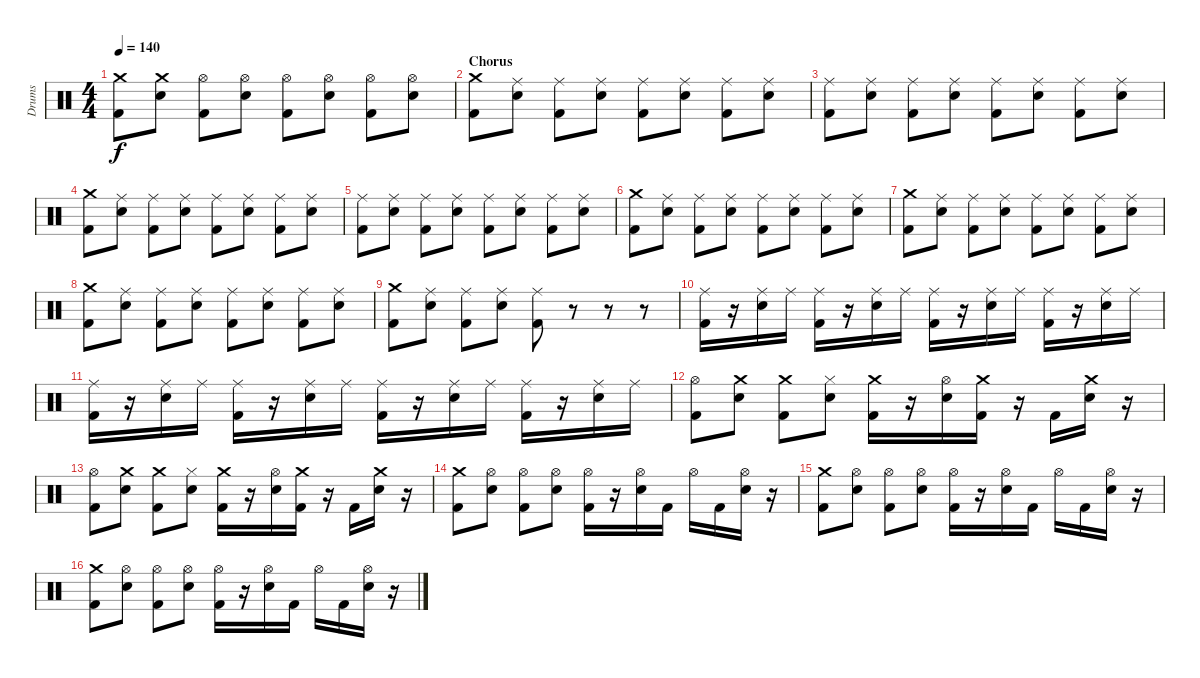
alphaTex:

\track ("Drums" "Drums") {instrument percussion}
\staff {score}
\articulation defaults
\ts (4 4)
\tempo 140
\clef neutral
\ks c
("Crash medium (hit)" "Kick (hit) 2").8{dy f} ("Crash medium (hit)" "Snare (hit) 2").8 ("Hi-Hat (open)" "Kick (hit) 2").8 ("Hi-Hat (open)" "Snare (hit) 2").8 ("Hi-Hat (open)" "Kick (hit) 2").8 ("Hi-Hat (open)" "Snare (hit) 2").8 ("Hi-Hat (open)" "Kick (hit) 2").8 ("Hi-Hat (open)" "Snare (hit) 2").8 |
\section ("" "Chorus")
("Crash medium (hit)" "Kick (hit) 2").8 ("Ride (middle)" "Snare (hit) 2").8 ("Ride (middle)" "Kick (hit) 2").8 ("Ride (middle)" "Snare (hit) 2").8 ("Ride (middle)" "Kick (hit) 2").8 ("Ride (middle)" "Snare (hit) 2").8 ("Ride (middle)" "Kick (hit) 2").8 ("Ride (middle)" "Snare (hit) 2").8 |
("Ride (middle)" "Kick (hit) 2").8 ("Ride (middle)" "Snare (hit) 2").8 ("Ride (middle)" "Kick (hit) 2").8 ("Ride (middle)" "Snare (hit) 2").8 ("Ride (middle)" "Kick (hit) 2").8 ("Ride (middle)" "Snare (hit) 2").8 ("Ride (middle)" "Kick (hit) 2").8 ("Ride (middle)" "Snare (hit) 2").8 |
("Crash medium (hit)" "Kick (hit) 2").8 ("Ride (middle)" "Snare (hit) 2").8 ("Ride (middle)" "Kick (hit) 2").8 ("Ride (middle)" "Snare (hit) 2").8 ("Ride (middle)" "Kick (hit) 2").8 ("Ride (middle)" "Snare (hit) 2").8 ("Ride (middle)" "Kick (hit) 2").8 ("Ride (middle)" "Snare (hit) 2").8 |
("Ride (middle)" "Kick (hit) 2").8 ("Ride (middle)" "Snare (hit) 2").8 ("Ride (middle)" "Kick (hit) 2").8 ("Ride (middle)" "Snare (hit) 2").8 ("Ride (middle)" "Kick (hit) 2").8 ("Ride (middle)" "Snare (hit) 2").8 ("Ride (middle)" "Kick (hit) 2").8 ("Ride (middle)" "Snare (hit) 2").8 |
("Crash medium (hit)" "Kick (hit) 2").8 ("Ride (middle)" "Snare (hit) 2").8 ("Ride (middle)" "Kick (hit) 2").8 ("Ride (middle)" "Snare (hit) 2").8 ("Ride (middle)" "Kick (hit) 2").8 ("Ride (middle)" "Snare (hit) 2").8 ("Ride (middle)" "Kick (hit) 2").8 ("Ride (middle)" "Snare (hit) 2").8 |
("Crash medium (hit)" "Kick (hit) 2").8 ("Ride (middle)" "Snare (hit) 2").8 ("Ride (middle)" "Kick (hit) 2").8 ("Ride (middle)" "Snare (hit) 2").8 ("Ride (middle)" "Kick (hit) 2").8 ("Ride (middle)" "Snare (hit) 2").8 ("Ride (middle)" "Kick (hit) 2").8 ("Ride (middle)" "Snare (hit) 2").8 |
("Crash medium (hit)" "Kick (hit) 2").8 ("Ride (middle)" "Snare (hit) 2").8 ("Ride (middle)" "Kick (hit) 2").8 ("Ride (middle)" "Snare (hit) 2").8 ("Ride (middle)" "Kick (hit) 2").8 ("Ride (middle)" "Snare (hit) 2").8 ("Ride (middle)" "Kick (hit) 2").8 ("Ride (middle)" "Snare (hit) 2").8 |
("Crash medium (hit)" "Kick (hit) 2").8 ("Ride (middle)" "Snare (hit) 2").8 ("Ride (middle)" "Kick (hit) 2").8 ("Ride (middle)" "Snare (hit) 2").8 ("Ride (middle)" "Kick (hit) 2").8 r.8 r.8 r.8 |
\section ("" "")
("Ride (middle)" "Kick (hit) 2").16 r.16 ("Ride (middle)" "Snare (hit) 2").16 "Ride (middle)".16 ("Ride (middle)" "Kick (hit) 2").16 r.16 ("Ride (middle)" "Snare (hit) 2").16 "Ride (middle)".16 ("Ride (middle)" "Kick (hit) 2").16 r.16 ("Ride (middle)" "Snare (hit) 2").16 "Ride (middle)".16 ("Ride (middle)" "Kick (hit) 2").16 r.16 ("Ride (middle)" "Snare (hit) 2").16 "Ride (middle)".16 |
("Ride (middle)" "Kick (hit) 2").16 r.16 ("Ride (middle)" "Snare (hit) 2").16 "Ride (middle)".16 ("Ride (middle)" "Kick (hit) 2").16 r.16 ("Ride (middle)" "Snare (hit) 2").16 "Ride (middle)".16 ("Ride (middle)" "Kick (hit) 2").16 r.16 ("Ride (middle)" "Snare (hit) 2").16 "Ride (middle)".16 ("Ride (middle)" "Kick (hit) 2").16 r.16 ("Ride (middle)" "Snare (hit) 2").16 "Ride (middle)".16 |
("Hi-Hat (open)" "Kick (hit) 2").8 ("Crash medium (hit)" "Snare (hit) 2").8 ("Crash medium (hit)" "Kick (hit) 2").8 ("Hi-Hat (closed)" "Snare (hit) 2").8 ("Crash medium (hit)" "Kick (hit) 2").16 r.16 ("Hi-Hat (open)" "Snare (hit) 2").16 ("Crash medium (hit)" "Kick (hit) 2").16 r.16 "Kick (hit) 2".16 ("Crash medium (hit)" "Snare (hit) 2").16 r.16 |
("Hi-Hat (open)" "Kick (hit) 2").8 ("Crash medium (hit)" "Snare (hit) 2").8 ("Crash medium (hit)" "Kick (hit) 2").8 ("Hi-Hat (closed)" "Snare (hit) 2").8 ("Crash medium (hit)" "Kick (hit) 2").16 r.16 ("Hi-Hat (open)" "Snare (hit) 2").16 ("Crash medium (hit)" "Kick (hit) 2").16 r.16 "Kick (hit) 2".16 ("Crash medium (hit)" "Snare (hit) 2").16 r.16 |
("Crash medium (hit)" "Kick (hit) 2").8 ("Hi-Hat (open)" "Snare (hit) 2").8 ("Hi-Hat (open)" "Kick (hit) 2").8 ("Hi-Hat (open)" "Snare (hit) 2").8 ("Hi-Hat (open)" "Kick (hit) 2").16 r.16 ("Hi-Hat (open)" "Snare (hit) 2").16 "Kick (hit) 2".16 "Hi-Hat (open)".16 "Kick (hit) 2".16 ("Hi-Hat (open)" "Snare (hit) 2").16 r.16 |
("Crash medium (hit)" "Kick (hit) 2").8 ("Hi-Hat (open)" "Snare (hit) 2").8 ("Hi-Hat (open)" "Kick (hit) 2").8 ("Hi-Hat (open)" "Snare (hit) 2").8 ("Hi-Hat (open)" "Kick (hit) 2").16 r.16 ("Hi-Hat (open)" "Snare (hit) 2").16 "Kick (hit) 2".16 "Hi-Hat (open)".16 "Kick (hit) 2".16 ("Hi-Hat (open)" "Snare (hit) 2").16 r.16 |
("Crash medium (hit)" "Kick (hit) 2").8 ("Hi-Hat (open)" "Snare (hit) 2").8 ("Hi-Hat (open)" "Kick (hit) 2").8 ("Hi-Hat (open)" "Snare (hit) 2").8 ("Hi-Hat (open)" "Kick (hit) 2").16 r.16 ("Hi-Hat (open)" "Snare (hit) 2").16 "Kick (hit) 2".16 "Hi-Hat (open)".16 "Kick (hit) 2".16 ("Hi-Hat (open)" "Snare (hit) 2").16 r.16
